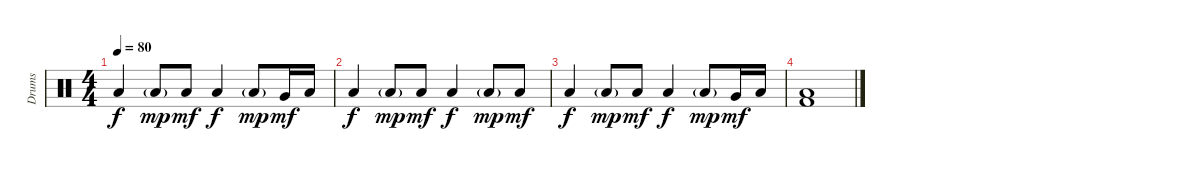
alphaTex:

\track ("Drums" "Drums") {instrument percussion}
\staff {score}
\articulation defaults
\ts (4 4)
\tempo 80
\clef neutral
\ks c "Low Floor Tom (hit)".4{dy f} "Low Floor Tom (hit)"{g}.8{dy mp} "Low Floor Tom (hit)".8{dy mf} "Low Floor Tom (hit)".4{dy f} "Low Floor Tom (hit)"{g}.8{dy mp} "Very Low Tom (hit)".16{dy mf} "Low Floor Tom (hit)".16
|
"Low Floor Tom (hit)".4{dy f} "Low Floor Tom (hit)"{g}.8{dy mp} "Low Floor Tom (hit)".8{dy mf} "Low Floor Tom (hit)".4{dy f} "Low Floor Tom (hit)"{g}.8{dy mp} "Low Floor Tom (hit)".8{dy mf} |
"Low Floor Tom (hit)".4{dy f} "Low Floor Tom (hit)"{g}.8{dy mp} "Low Floor Tom (hit)".8{dy mf} "Low Floor Tom (hit)".4{dy f} "Low Floor Tom (hit)"{g}.8{dy mp} "Very Low Tom (hit)".16{dy mf} "Low Floor Tom (hit)".16 |
("Low Floor Tom (hit)" "Kick (hit) 2").1
